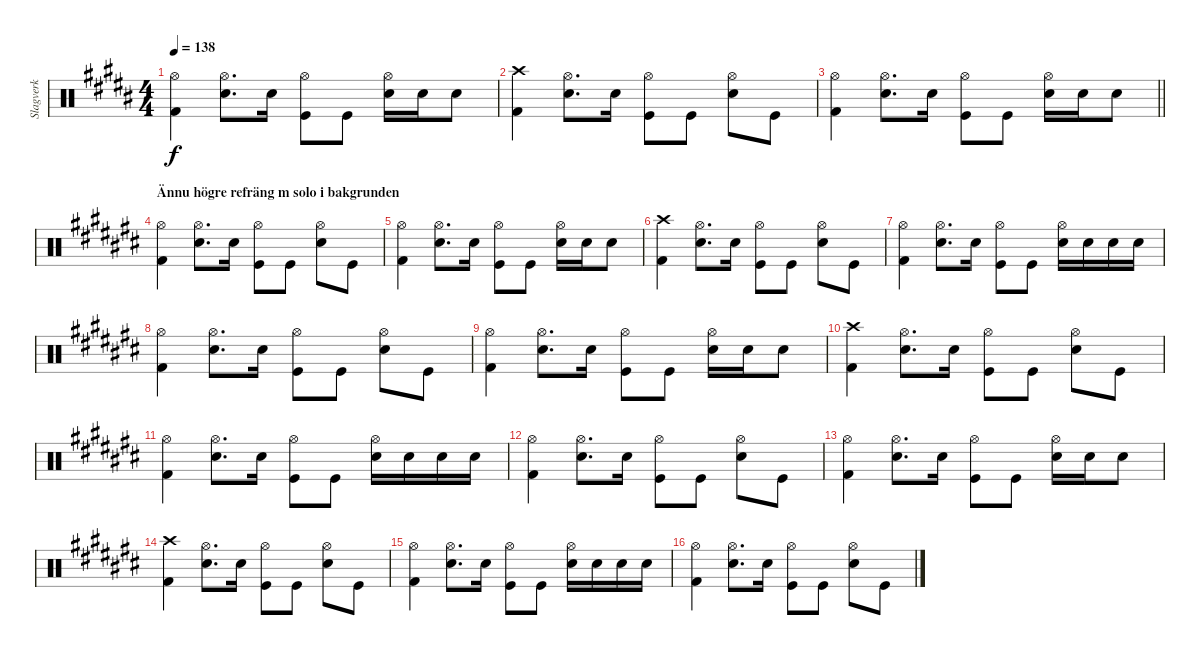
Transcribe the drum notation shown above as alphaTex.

\track ("Slagverk" "Slagverk") {instrument percussion}
\staff {score}
\articulation defaults
\ts (4 4)
\tempo 138
\clef neutral
\ks b
("Hi-Hat (open)" "Kick (hit) 2").4{dy f} ("Hi-Hat (open)" "Snare (hit) 2").8{d} "Snare (hit) 2".16 ("Hi-Hat (open)" "Kick (hit)").8 "Kick (hit)".8 ("Hi-Hat (open)" "Snare (hit) 2").16 "Snare (hit) 2".16 "Snare (hit) 2".8 |
("Crash high (hit)" "Kick (hit) 2").4 ("Hi-Hat (open)" "Snare (hit) 2").8{d} "Snare (hit) 2".16 ("Hi-Hat (open)" "Kick (hit)").8 "Kick (hit)".8 ("Hi-Hat (open)" "Snare (hit) 2").8 "Kick (hit)".8 |
\barLineRight lightlight
("Hi-Hat (open)" "Kick (hit) 2").4 ("Hi-Hat (open)" "Snare (hit) 2").8{d} "Snare (hit) 2".16 ("Hi-Hat (open)" "Kick (hit)").8 "Kick (hit)".8 ("Hi-Hat (open)" "Snare (hit) 2").16 "Snare (hit) 2".16 "Snare (hit) 2".8 |
\section ("" "Ännu högre refräng m solo i bakgrunden")
\ks c#
("Hi-Hat (open)" "Kick (hit) 2").4 ("Hi-Hat (open)" "Snare (hit) 2").8{d} "Snare (hit) 2".16 ("Hi-Hat (open)" "Kick (hit)").8 "Kick (hit)".8 ("Hi-Hat (open)" "Snare (hit) 2").8 "Kick (hit)".8 |
("Hi-Hat (open)" "Kick (hit) 2").4 ("Hi-Hat (open)" "Snare (hit) 2").8{d} "Snare (hit) 2".16 ("Hi-Hat (open)" "Kick (hit)").8 "Kick (hit)".8 ("Hi-Hat (open)" "Snare (hit) 2").16 "Snare (hit) 2".16 "Snare (hit) 2".8 |
("Crash high (hit)" "Kick (hit) 2").4 ("Hi-Hat (open)" "Snare (hit) 2").8{d} "Snare (hit) 2".16 ("Hi-Hat (open)" "Kick (hit)").8 "Kick (hit)".8 ("Hi-Hat (open)" "Snare (hit) 2").8 "Kick (hit)".8 |
("Hi-Hat (open)" "Kick (hit) 2").4 ("Hi-Hat (open)" "Snare (hit) 2").8{d} "Snare (hit) 2".16 ("Hi-Hat (open)" "Kick (hit)").8 "Kick (hit)".8 ("Hi-Hat (open)" "Snare (hit) 2").16 "Snare (hit) 2".16 "Snare (hit) 2".16 "Snare (hit) 2".16 |
("Hi-Hat (open)" "Kick (hit) 2").4 ("Hi-Hat (open)" "Snare (hit) 2").8{d} "Snare (hit) 2".16 ("Hi-Hat (open)" "Kick (hit)").8 "Kick (hit)".8 ("Hi-Hat (open)" "Snare (hit) 2").8 "Kick (hit)".8 |
("Hi-Hat (open)" "Kick (hit) 2").4 ("Hi-Hat (open)" "Snare (hit) 2").8{d} "Snare (hit) 2".16 ("Hi-Hat (open)" "Kick (hit)").8 "Kick (hit)".8 ("Hi-Hat (open)" "Snare (hit) 2").16 "Snare (hit) 2".16 "Snare (hit) 2".8 |
("Crash high (hit)" "Kick (hit) 2").4 ("Hi-Hat (open)" "Snare (hit) 2").8{d} "Snare (hit) 2".16 ("Hi-Hat (open)" "Kick (hit)").8 "Kick (hit)".8 ("Hi-Hat (open)" "Snare (hit) 2").8 "Kick (hit)".8 |
("Hi-Hat (open)" "Kick (hit) 2").4 ("Hi-Hat (open)" "Snare (hit) 2").8{d} "Snare (hit) 2".16 ("Hi-Hat (open)" "Kick (hit)").8 "Kick (hit)".8 ("Hi-Hat (open)" "Snare (hit) 2").16 "Snare (hit) 2".16 "Snare (hit) 2".16 "Snare (hit) 2".16 |
("Hi-Hat (open)" "Kick (hit) 2").4 ("Hi-Hat (open)" "Snare (hit) 2").8{d} "Snare (hit) 2".16 ("Hi-Hat (open)" "Kick (hit)").8 "Kick (hit)".8 ("Hi-Hat (open)" "Snare (hit) 2").8 "Kick (hit)".8 |
("Hi-Hat (open)" "Kick (hit) 2").4 ("Hi-Hat (open)" "Snare (hit) 2").8{d} "Snare (hit) 2".16 ("Hi-Hat (open)" "Kick (hit)").8 "Kick (hit)".8 ("Hi-Hat (open)" "Snare (hit) 2").16 "Snare (hit) 2".16 "Snare (hit) 2".8 |
("Crash high (hit)" "Kick (hit) 2").4 ("Hi-Hat (open)" "Snare (hit) 2").8{d} "Snare (hit) 2".16 ("Hi-Hat (open)" "Kick (hit)").8 "Kick (hit)".8 ("Hi-Hat (open)" "Snare (hit) 2").8 "Kick (hit)".8 |
("Hi-Hat (open)" "Kick (hit) 2").4 ("Hi-Hat (open)" "Snare (hit) 2").8{d} "Snare (hit) 2".16 ("Hi-Hat (open)" "Kick (hit)").8 "Kick (hit)".8 ("Hi-Hat (open)" "Snare (hit) 2").16 "Snare (hit) 2".16 "Snare (hit) 2".16 "Snare (hit) 2".16 |
("Hi-Hat (open)" "Kick (hit) 2").4 ("Hi-Hat (open)" "Snare (hit) 2").8{d} "Snare (hit) 2".16 ("Hi-Hat (open)" "Kick (hit)").8 "Kick (hit)".8 ("Hi-Hat (open)" "Snare (hit) 2").8 "Kick (hit)".8
